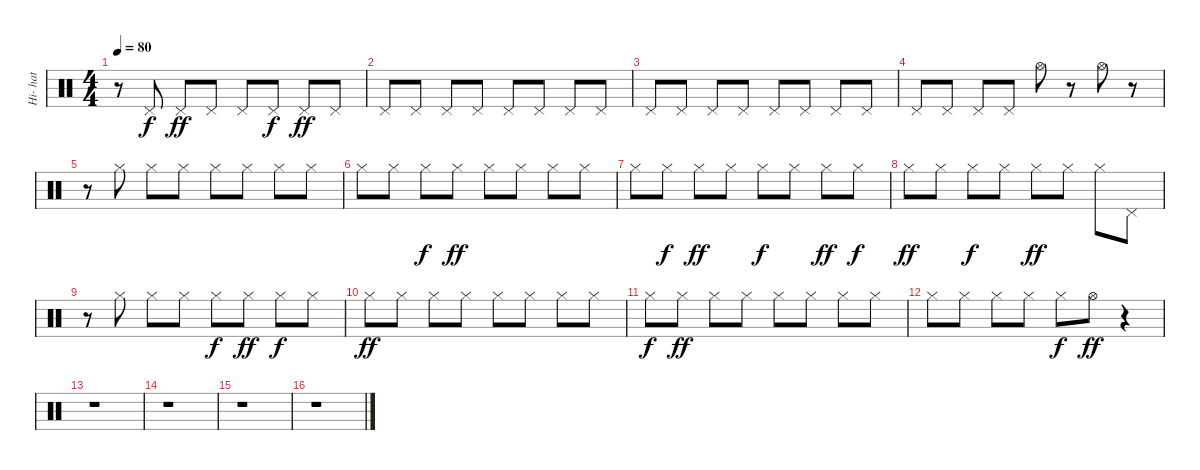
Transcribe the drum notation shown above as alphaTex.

\track ("Hi- hat" "Hi- hat") {instrument percussion}
\staff {score}
\articulation defaults
\ts (4 4)
\tempo 80
\clef neutral
\ks c
r.8{dy ff} "Pedal Hi-Hat (hit)".8{dy f} "Pedal Hi-Hat (hit)".8{dy ff} "Pedal Hi-Hat (hit)".8 "Pedal Hi-Hat (hit)".8 "Pedal Hi-Hat (hit)".8{dy f} "Pedal Hi-Hat (hit)".8{dy ff} "Pedal Hi-Hat (hit)".8 |
"Pedal Hi-Hat (hit)".8 "Pedal Hi-Hat (hit)".8 "Pedal Hi-Hat (hit)".8 "Pedal Hi-Hat (hit)".8 "Pedal Hi-Hat (hit)".8 "Pedal Hi-Hat (hit)".8 "Pedal Hi-Hat (hit)".8 "Pedal Hi-Hat (hit)".8 |
"Pedal Hi-Hat (hit)".8 "Pedal Hi-Hat (hit)".8 "Pedal Hi-Hat (hit)".8 "Pedal Hi-Hat (hit)".8 "Pedal Hi-Hat (hit)".8 "Pedal Hi-Hat (hit)".8 "Pedal Hi-Hat (hit)".8 "Pedal Hi-Hat (hit)".8 |
"Pedal Hi-Hat (hit)".8 "Pedal Hi-Hat (hit)".8 "Pedal Hi-Hat (hit)".8 "Pedal Hi-Hat (hit)".8 "Hi-Hat (open)".8 r.8 "Hi-Hat (open)".8 r.8 |
r.8 "Hi-Hat (closed)".8 "Hi-Hat (closed)".8 "Hi-Hat (closed)".8 "Hi-Hat (closed)".8 "Hi-Hat (closed)".8 "Hi-Hat (closed)".8 "Hi-Hat (closed)".8 |
"Hi-Hat (closed)".8 "Hi-Hat (closed)".8 "Hi-Hat (closed)".8{dy f} "Hi-Hat (closed)".8{dy ff} "Hi-Hat (closed)".8 "Hi-Hat (closed)".8 "Hi-Hat (closed)".8 "Hi-Hat (closed)".8 |
"Hi-Hat (closed)".8 "Hi-Hat (closed)".8{dy f} "Hi-Hat (closed)".8{dy ff} "Hi-Hat (closed)".8 "Hi-Hat (closed)".8{dy f} "Hi-Hat (closed)".8 "Hi-Hat (closed)".8{dy ff} "Hi-Hat (closed)".8{dy f} |
"Hi-Hat (closed)".8{dy ff} "Hi-Hat (closed)".8 "Hi-Hat (closed)".8{dy f} "Hi-Hat (closed)".8 "Hi-Hat (closed)".8{dy ff} "Hi-Hat (closed)".8 "Hi-Hat (closed)".8 "Pedal Hi-Hat (hit)".8 |
r.8 "Hi-Hat (closed)".8 "Hi-Hat (closed)".8 "Hi-Hat (closed)".8 "Hi-Hat (closed)".8{dy f} "Hi-Hat (closed)".8{dy ff} "Hi-Hat (closed)".8{dy f} "Hi-Hat (closed)".8 |
"Hi-Hat (closed)".8{dy ff} "Hi-Hat (closed)".8 "Hi-Hat (closed)".8 "Hi-Hat (closed)".8 "Hi-Hat (closed)".8 "Hi-Hat (closed)".8 "Hi-Hat (closed)".8 "Hi-Hat (closed)".8 |
"Hi-Hat (closed)".8{dy f} "Hi-Hat (closed)".8{dy ff} "Hi-Hat (closed)".8 "Hi-Hat (closed)".8 "Hi-Hat (closed)".8 "Hi-Hat (closed)".8 "Hi-Hat (closed)".8 "Hi-Hat (closed)".8 |
"Hi-Hat (closed)".8 "Hi-Hat (closed)".8 "Hi-Hat (closed)".8 "Hi-Hat (closed)".8 "Hi-Hat (closed)".8{dy f} "Hi-Hat (open)".8{dy ff} r.4 |
r.1 |
r.1 |
r.1 |
r.1
